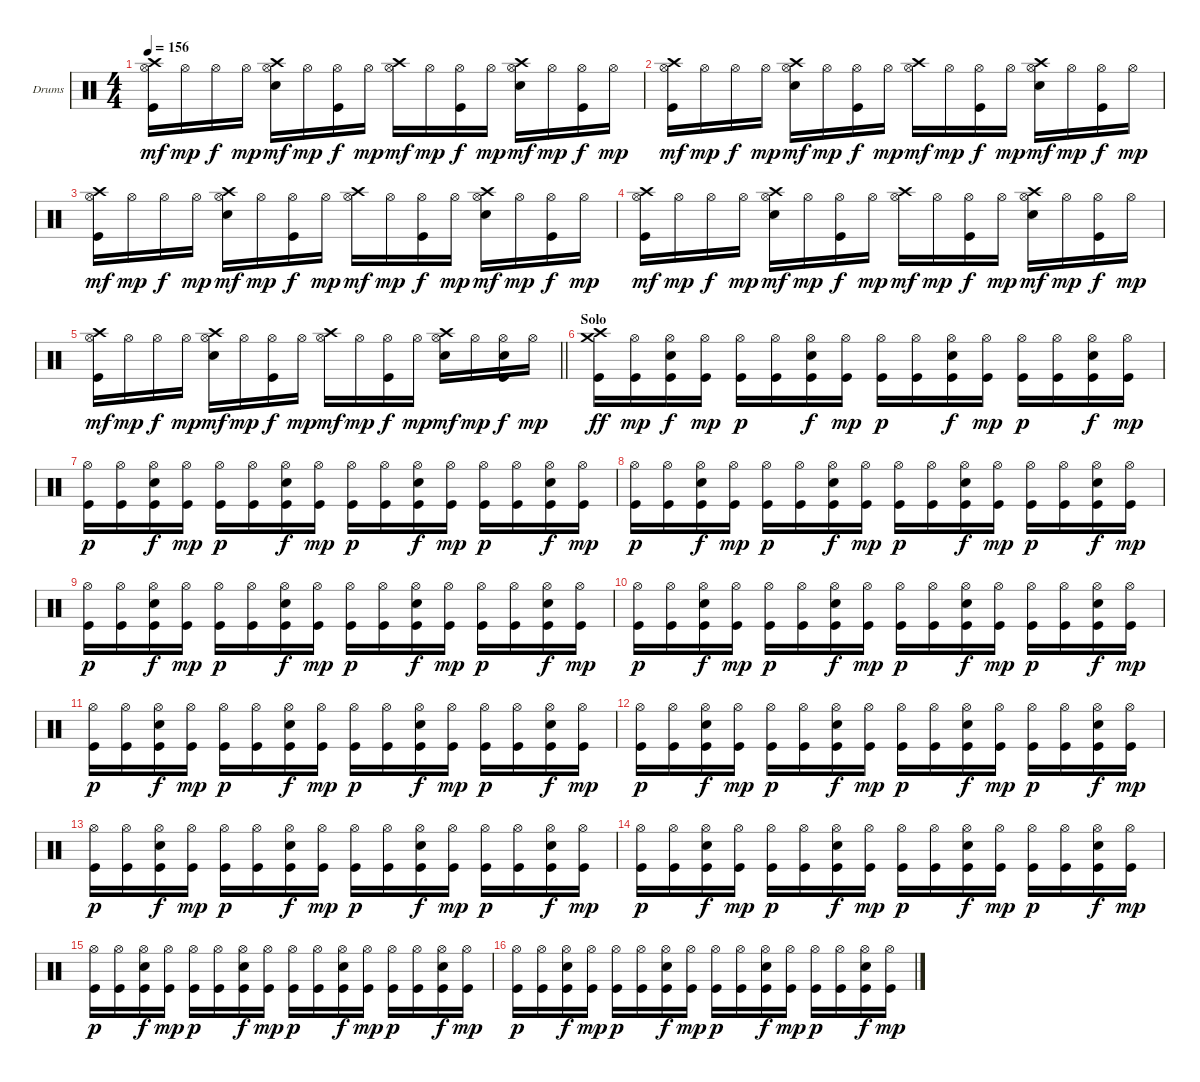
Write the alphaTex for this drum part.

\bracketExtendMode groupsimilarinstruments
\firstSystemTrackNameOrientation horizontal
\otherSystemsTrackNameOrientation horizontal
\track ("Drums" "Drums") {instrument percussion}
\staff {score}
\articulation defaults
\ts (4 4)
\tempo 156
\clef neutral
\ks c
("Crash high (hit)" "Hi-Hat (open)" "Kick (hit)").16{dy mf} "Hi-Hat (open)".16{dy mp} "Hi-Hat (open)".16{dy f} "Hi-Hat (open)".16{dy mp} ("Crash high (hit)" "Hi-Hat (open)" "Snare (hit) 2").16{dy mf} "Hi-Hat (open)".16{dy mp} ("Hi-Hat (open)" "Kick (hit)").16{dy f} "Hi-Hat (open)".16{dy mp} ("Crash high (hit)" "Hi-Hat (open)").16{dy mf} "Hi-Hat (open)".16{dy mp} ("Hi-Hat (open)" "Kick (hit)").16{dy f} "Hi-Hat (open)".16{dy mp} ("Crash high (hit)" "Hi-Hat (open)" "Snare (hit) 2").16{dy mf} "Hi-Hat (open)".16{dy mp} ("Hi-Hat (open)" "Kick (hit)").16{dy f} "Hi-Hat (open)".16{dy mp} |
("Crash high (hit)" "Hi-Hat (open)" "Kick (hit)").16{dy mf} "Hi-Hat (open)".16{dy mp} "Hi-Hat (open)".16{dy f} "Hi-Hat (open)".16{dy mp} ("Crash high (hit)" "Hi-Hat (open)" "Snare (hit) 2").16{dy mf} "Hi-Hat (open)".16{dy mp} ("Hi-Hat (open)" "Kick (hit)").16{dy f} "Hi-Hat (open)".16{dy mp} ("Crash high (hit)" "Hi-Hat (open)").16{dy mf} "Hi-Hat (open)".16{dy mp} ("Hi-Hat (open)" "Kick (hit)").16{dy f} "Hi-Hat (open)".16{dy mp} ("Crash high (hit)" "Hi-Hat (open)" "Snare (hit) 2").16{dy mf} "Hi-Hat (open)".16{dy mp} ("Hi-Hat (open)" "Kick (hit)").16{dy f} "Hi-Hat (open)".16{dy mp} |
("Crash high (hit)" "Hi-Hat (open)" "Kick (hit)").16{dy mf} "Hi-Hat (open)".16{dy mp} "Hi-Hat (open)".16{dy f} "Hi-Hat (open)".16{dy mp} ("Crash high (hit)" "Hi-Hat (open)" "Snare (hit) 2").16{dy mf} "Hi-Hat (open)".16{dy mp} ("Hi-Hat (open)" "Kick (hit)").16{dy f} "Hi-Hat (open)".16{dy mp} ("Crash high (hit)" "Hi-Hat (open)").16{dy mf} "Hi-Hat (open)".16{dy mp} ("Hi-Hat (open)" "Kick (hit)").16{dy f} "Hi-Hat (open)".16{dy mp} ("Crash high (hit)" "Hi-Hat (open)" "Snare (hit) 2").16{dy mf} "Hi-Hat (open)".16{dy mp} ("Hi-Hat (open)" "Kick (hit)").16{dy f} "Hi-Hat (open)".16{dy mp} |
("Crash high (hit)" "Hi-Hat (open)" "Kick (hit)").16{dy mf} "Hi-Hat (open)".16{dy mp} "Hi-Hat (open)".16{dy f} "Hi-Hat (open)".16{dy mp} ("Crash high (hit)" "Hi-Hat (open)" "Snare (hit) 2").16{dy mf} "Hi-Hat (open)".16{dy mp} ("Hi-Hat (open)" "Kick (hit)").16{dy f} "Hi-Hat (open)".16{dy mp} ("Crash high (hit)" "Hi-Hat (open)").16{dy mf} "Hi-Hat (open)".16{dy mp} ("Hi-Hat (open)" "Kick (hit)").16{dy f} "Hi-Hat (open)".16{dy mp} ("Crash high (hit)" "Hi-Hat (open)" "Snare (hit) 2").16{dy mf} "Hi-Hat (open)".16{dy mp} ("Hi-Hat (open)" "Kick (hit)").16{dy f} "Hi-Hat (open)".16{dy mp} |
\barLineRight lightlight
("Crash high (hit)" "Hi-Hat (open)" "Kick (hit)").16{dy mf} "Hi-Hat (open)".16{dy mp} "Hi-Hat (open)".16{dy f} "Hi-Hat (open)".16{dy mp} ("Crash high (hit)" "Hi-Hat (open)" "Snare (hit) 2").16{dy mf} "Hi-Hat (open)".16{dy mp} ("Hi-Hat (open)" "Kick (hit)").16{dy f} "Hi-Hat (open)".16{dy mp} ("Crash high (hit)" "Hi-Hat (open)").16{dy mf} "Hi-Hat (open)".16{dy mp} ("Hi-Hat (open)" "Kick (hit)").16{dy f} "Hi-Hat (open)".16{dy mp} ("Crash high (hit)" "Hi-Hat (open)" "Snare (hit) 2").16{dy mf} "Hi-Hat (open)".16{dy mp} ("Hi-Hat (open)" "Snare (hit) 2" "Kick (hit)").16{dy f} "Hi-Hat (open)".16{dy mp} |
\section ("" "Solo")
("Crash medium (hit)" "Crash high (hit)" "Kick (hit)").16{dy ff} ("Hi-Hat (open)" "Kick (hit)").16{dy mp} ("Hi-Hat (open)" "Snare (hit) 2" "Kick (hit)").16{dy f} ("Hi-Hat (open)" "Kick (hit)").16{dy mp} ("Hi-Hat (open)" "Kick (hit)").16{dy p} ("Hi-Hat (open)" "Kick (hit)").16 ("Hi-Hat (open)" "Snare (hit) 2" "Kick (hit)").16{dy f} ("Hi-Hat (open)" "Kick (hit)").16{dy mp} ("Hi-Hat (open)" "Kick (hit)").16{dy p} ("Hi-Hat (open)" "Kick (hit)").16 ("Hi-Hat (open)" "Snare (hit) 2" "Kick (hit)").16{dy f} ("Hi-Hat (open)" "Kick (hit)").16{dy mp} ("Hi-Hat (open)" "Kick (hit)").16{dy p} ("Hi-Hat (open)" "Kick (hit)").16 ("Hi-Hat (open)" "Snare (hit) 2" "Kick (hit)").16{dy f} ("Hi-Hat (open)" "Kick (hit)").16{dy mp} |
("Hi-Hat (open)" "Kick (hit)").16{dy p} ("Hi-Hat (open)" "Kick (hit)").16 ("Hi-Hat (open)" "Snare (hit) 2" "Kick (hit)").16{dy f} ("Hi-Hat (open)" "Kick (hit)").16{dy mp} ("Hi-Hat (open)" "Kick (hit)").16{dy p} ("Hi-Hat (open)" "Kick (hit)").16 ("Hi-Hat (open)" "Snare (hit) 2" "Kick (hit)").16{dy f} ("Hi-Hat (open)" "Kick (hit)").16{dy mp} ("Hi-Hat (open)" "Kick (hit)").16{dy p} ("Hi-Hat (open)" "Kick (hit)").16 ("Hi-Hat (open)" "Snare (hit) 2" "Kick (hit)").16{dy f} ("Hi-Hat (open)" "Kick (hit)").16{dy mp} ("Hi-Hat (open)" "Kick (hit)").16{dy p} ("Hi-Hat (open)" "Kick (hit)").16 ("Hi-Hat (open)" "Snare (hit) 2" "Kick (hit)").16{dy f} ("Hi-Hat (open)" "Kick (hit)").16{dy mp} |
("Hi-Hat (open)" "Kick (hit)").16{dy p} ("Hi-Hat (open)" "Kick (hit)").16 ("Hi-Hat (open)" "Snare (hit) 2" "Kick (hit)").16{dy f} ("Hi-Hat (open)" "Kick (hit)").16{dy mp} ("Hi-Hat (open)" "Kick (hit)").16{dy p} ("Hi-Hat (open)" "Kick (hit)").16 ("Hi-Hat (open)" "Snare (hit) 2" "Kick (hit)").16{dy f} ("Hi-Hat (open)" "Kick (hit)").16{dy mp} ("Hi-Hat (open)" "Kick (hit)").16{dy p} ("Hi-Hat (open)" "Kick (hit)").16 ("Hi-Hat (open)" "Snare (hit) 2" "Kick (hit)").16{dy f} ("Hi-Hat (open)" "Kick (hit)").16{dy mp} ("Hi-Hat (open)" "Kick (hit)").16{dy p} ("Hi-Hat (open)" "Kick (hit)").16 ("Hi-Hat (open)" "Snare (hit) 2" "Kick (hit)").16{dy f} ("Hi-Hat (open)" "Kick (hit)").16{dy mp} |
("Hi-Hat (open)" "Kick (hit)").16{dy p} ("Hi-Hat (open)" "Kick (hit)").16 ("Hi-Hat (open)" "Snare (hit) 2" "Kick (hit)").16{dy f} ("Hi-Hat (open)" "Kick (hit)").16{dy mp} ("Hi-Hat (open)" "Kick (hit)").16{dy p} ("Hi-Hat (open)" "Kick (hit)").16 ("Hi-Hat (open)" "Snare (hit) 2" "Kick (hit)").16{dy f} ("Hi-Hat (open)" "Kick (hit)").16{dy mp} ("Hi-Hat (open)" "Kick (hit)").16{dy p} ("Hi-Hat (open)" "Kick (hit)").16 ("Hi-Hat (open)" "Snare (hit) 2" "Kick (hit)").16{dy f} ("Hi-Hat (open)" "Kick (hit)").16{dy mp} ("Hi-Hat (open)" "Kick (hit)").16{dy p} ("Hi-Hat (open)" "Kick (hit)").16 ("Hi-Hat (open)" "Snare (hit) 2" "Kick (hit)").16{dy f} ("Hi-Hat (open)" "Kick (hit)").16{dy mp} |
("Hi-Hat (open)" "Kick (hit)").16{dy p} ("Hi-Hat (open)" "Kick (hit)").16 ("Hi-Hat (open)" "Snare (hit) 2" "Kick (hit)").16{dy f} ("Hi-Hat (open)" "Kick (hit)").16{dy mp} ("Hi-Hat (open)" "Kick (hit)").16{dy p} ("Hi-Hat (open)" "Kick (hit)").16 ("Hi-Hat (open)" "Snare (hit) 2" "Kick (hit)").16{dy f} ("Hi-Hat (open)" "Kick (hit)").16{dy mp} ("Hi-Hat (open)" "Kick (hit)").16{dy p} ("Hi-Hat (open)" "Kick (hit)").16 ("Hi-Hat (open)" "Snare (hit) 2" "Kick (hit)").16{dy f} ("Hi-Hat (open)" "Kick (hit)").16{dy mp} ("Hi-Hat (open)" "Kick (hit)").16{dy p} ("Hi-Hat (open)" "Kick (hit)").16 ("Hi-Hat (open)" "Snare (hit) 2" "Kick (hit)").16{dy f} ("Hi-Hat (open)" "Kick (hit)").16{dy mp} |
("Hi-Hat (open)" "Kick (hit)").16{dy p} ("Hi-Hat (open)" "Kick (hit)").16 ("Hi-Hat (open)" "Snare (hit) 2" "Kick (hit)").16{dy f} ("Hi-Hat (open)" "Kick (hit)").16{dy mp} ("Hi-Hat (open)" "Kick (hit)").16{dy p} ("Hi-Hat (open)" "Kick (hit)").16 ("Hi-Hat (open)" "Snare (hit) 2" "Kick (hit)").16{dy f} ("Hi-Hat (open)" "Kick (hit)").16{dy mp} ("Hi-Hat (open)" "Kick (hit)").16{dy p} ("Hi-Hat (open)" "Kick (hit)").16 ("Hi-Hat (open)" "Snare (hit) 2" "Kick (hit)").16{dy f} ("Hi-Hat (open)" "Kick (hit)").16{dy mp} ("Hi-Hat (open)" "Kick (hit)").16{dy p} ("Hi-Hat (open)" "Kick (hit)").16 ("Hi-Hat (open)" "Snare (hit) 2" "Kick (hit)").16{dy f} ("Hi-Hat (open)" "Kick (hit)").16{dy mp} |
("Hi-Hat (open)" "Kick (hit)").16{dy p} ("Hi-Hat (open)" "Kick (hit)").16 ("Hi-Hat (open)" "Snare (hit) 2" "Kick (hit)").16{dy f} ("Hi-Hat (open)" "Kick (hit)").16{dy mp} ("Hi-Hat (open)" "Kick (hit)").16{dy p} ("Hi-Hat (open)" "Kick (hit)").16 ("Hi-Hat (open)" "Snare (hit) 2" "Kick (hit)").16{dy f} ("Hi-Hat (open)" "Kick (hit)").16{dy mp} ("Hi-Hat (open)" "Kick (hit)").16{dy p} ("Hi-Hat (open)" "Kick (hit)").16 ("Hi-Hat (open)" "Snare (hit) 2" "Kick (hit)").16{dy f} ("Hi-Hat (open)" "Kick (hit)").16{dy mp} ("Hi-Hat (open)" "Kick (hit)").16{dy p} ("Hi-Hat (open)" "Kick (hit)").16 ("Hi-Hat (open)" "Snare (hit) 2" "Kick (hit)").16{dy f} ("Hi-Hat (open)" "Kick (hit)").16{dy mp} |
("Hi-Hat (open)" "Kick (hit)").16{dy p} ("Hi-Hat (open)" "Kick (hit)").16 ("Hi-Hat (open)" "Snare (hit) 2" "Kick (hit)").16{dy f} ("Hi-Hat (open)" "Kick (hit)").16{dy mp} ("Hi-Hat (open)" "Kick (hit)").16{dy p} ("Hi-Hat (open)" "Kick (hit)").16 ("Hi-Hat (open)" "Snare (hit) 2" "Kick (hit)").16{dy f} ("Hi-Hat (open)" "Kick (hit)").16{dy mp} ("Hi-Hat (open)" "Kick (hit)").16{dy p} ("Hi-Hat (open)" "Kick (hit)").16 ("Hi-Hat (open)" "Snare (hit) 2" "Kick (hit)").16{dy f} ("Hi-Hat (open)" "Kick (hit)").16{dy mp} ("Hi-Hat (open)" "Kick (hit)").16{dy p} ("Hi-Hat (open)" "Kick (hit)").16 ("Hi-Hat (open)" "Snare (hit) 2" "Kick (hit)").16{dy f} ("Hi-Hat (open)" "Kick (hit)").16{dy mp} |
("Hi-Hat (open)" "Kick (hit)").16{dy p} ("Hi-Hat (open)" "Kick (hit)").16 ("Hi-Hat (open)" "Snare (hit) 2" "Kick (hit)").16{dy f} ("Hi-Hat (open)" "Kick (hit)").16{dy mp} ("Hi-Hat (open)" "Kick (hit)").16{dy p} ("Hi-Hat (open)" "Kick (hit)").16 ("Hi-Hat (open)" "Snare (hit) 2" "Kick (hit)").16{dy f} ("Hi-Hat (open)" "Kick (hit)").16{dy mp} ("Hi-Hat (open)" "Kick (hit)").16{dy p} ("Hi-Hat (open)" "Kick (hit)").16 ("Hi-Hat (open)" "Snare (hit) 2" "Kick (hit)").16{dy f} ("Hi-Hat (open)" "Kick (hit)").16{dy mp} ("Hi-Hat (open)" "Kick (hit)").16{dy p} ("Hi-Hat (open)" "Kick (hit)").16 ("Hi-Hat (open)" "Snare (hit) 2" "Kick (hit)").16{dy f} ("Hi-Hat (open)" "Kick (hit)").16{dy mp} |
("Hi-Hat (open)" "Kick (hit)").16{dy p} ("Hi-Hat (open)" "Kick (hit)").16 ("Hi-Hat (open)" "Snare (hit) 2" "Kick (hit)").16{dy f} ("Hi-Hat (open)" "Kick (hit)").16{dy mp} ("Hi-Hat (open)" "Kick (hit)").16{dy p} ("Hi-Hat (open)" "Kick (hit)").16 ("Hi-Hat (open)" "Snare (hit) 2" "Kick (hit)").16{dy f} ("Hi-Hat (open)" "Kick (hit)").16{dy mp} ("Hi-Hat (open)" "Kick (hit)").16{dy p} ("Hi-Hat (open)" "Kick (hit)").16 ("Hi-Hat (open)" "Snare (hit) 2" "Kick (hit)").16{dy f} ("Hi-Hat (open)" "Kick (hit)").16{dy mp} ("Hi-Hat (open)" "Kick (hit)").16{dy p} ("Hi-Hat (open)" "Kick (hit)").16 ("Hi-Hat (open)" "Snare (hit) 2" "Kick (hit)").16{dy f} ("Hi-Hat (open)" "Kick (hit)").16{dy mp} |
("Hi-Hat (open)" "Kick (hit)").16{dy p} ("Hi-Hat (open)" "Kick (hit)").16 ("Hi-Hat (open)" "Snare (hit) 2" "Kick (hit)").16{dy f} ("Hi-Hat (open)" "Kick (hit)").16{dy mp} ("Hi-Hat (open)" "Kick (hit)").16{dy p} ("Hi-Hat (open)" "Kick (hit)").16 ("Hi-Hat (open)" "Snare (hit) 2" "Kick (hit)").16{dy f} ("Hi-Hat (open)" "Kick (hit)").16{dy mp} ("Hi-Hat (open)" "Kick (hit)").16{dy p} ("Hi-Hat (open)" "Kick (hit)").16 ("Hi-Hat (open)" "Snare (hit) 2" "Kick (hit)").16{dy f} ("Hi-Hat (open)" "Kick (hit)").16{dy mp} ("Hi-Hat (open)" "Kick (hit)").16{dy p} ("Hi-Hat (open)" "Kick (hit)").16 ("Hi-Hat (open)" "Snare (hit) 2" "Kick (hit)").16{dy f} ("Hi-Hat (open)" "Kick (hit)").16{dy mp}
